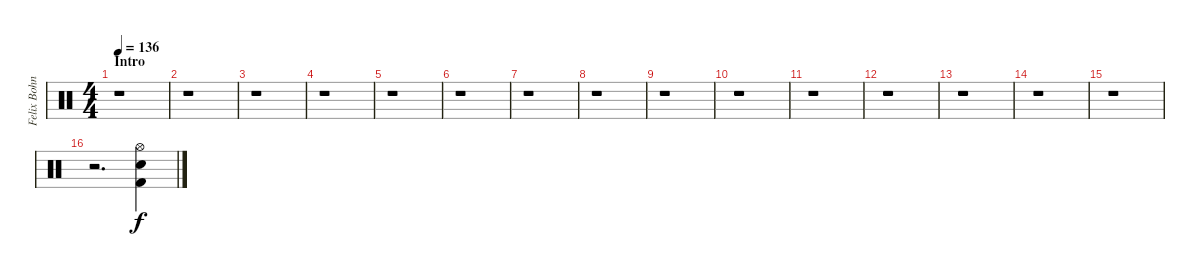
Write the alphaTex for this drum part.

\track ("Felix Bohnke" "Felix Bohn") {instrument percussion}
\staff {score}
\articulation defaults
\ts (4 4)
\section ("" "Intro")
\tempo 136
\clef neutral
\ks c
r.1{dy f} |
r.1 |
r.1 |
r.1 |
r.1 |
r.1 |
r.1 |
r.1 |
r.1 |
r.1 |
r.1 |
r.1 |
r.1 |
r.1 |
r.1 |
r.2{d} ("Hi-Hat (open)" "Snare (hit) 2" "Kick (hit) 2").4
